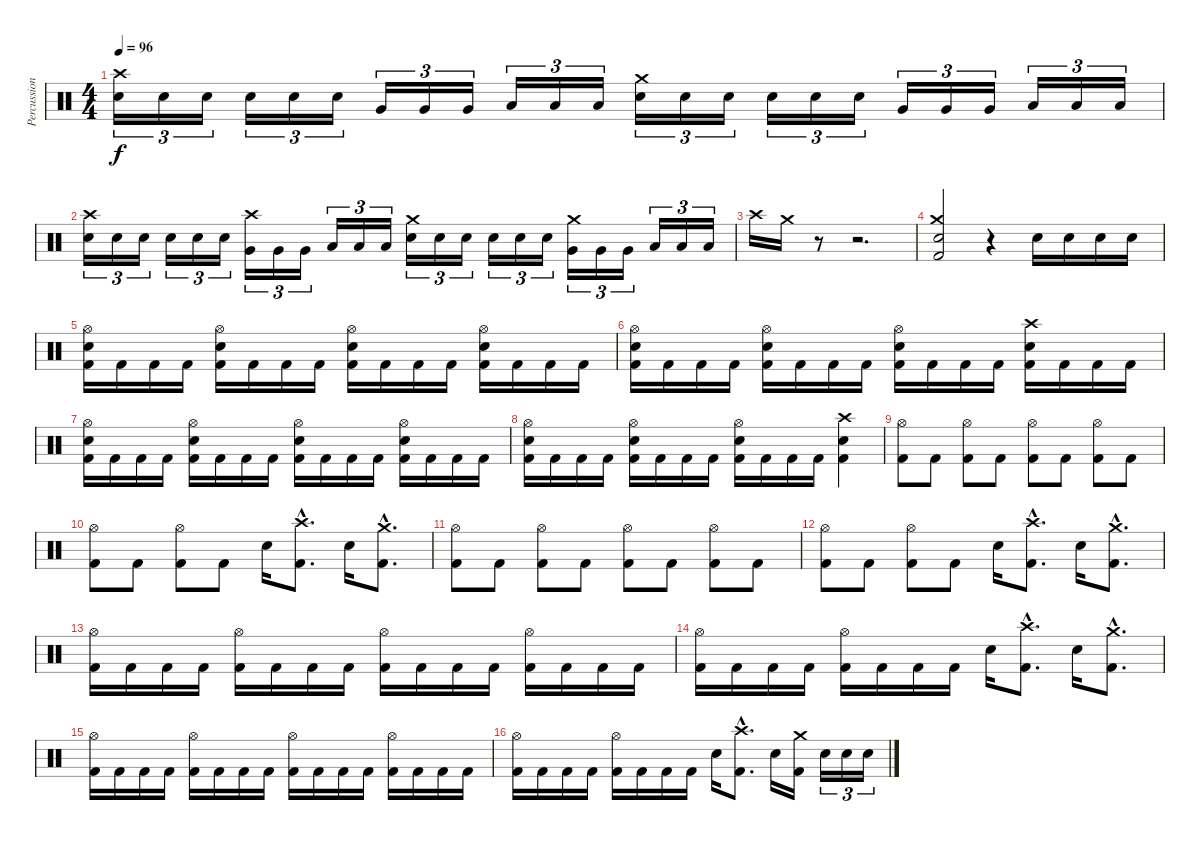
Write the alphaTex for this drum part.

\track ("Percussion" "Percussion") {instrument percussion}
\staff {score}
\articulation defaults
\ts (4 4)
\tempo 96
\clef neutral
\ks c
("Crash high (hit)" "Electric Snare (hit)").16{tu (3 2) dy f} "Electric Snare (hit)".16{tu (3 2)} "Electric Snare (hit)".16{tu (3 2)} "Electric Snare (hit)".16{tu (3 2)} "Electric Snare (hit)".16{tu (3 2)} "Electric Snare (hit)".16{tu (3 2)} "Very Low Tom (hit)".16{tu (3 2)} "Very Low Tom (hit)".16{tu (3 2)} "Very Low Tom (hit)".16{tu (3 2)} "Low Floor Tom (hit)".16{tu (3 2)} "Low Floor Tom (hit)".16{tu (3 2)} "Low Floor Tom (hit)".16{tu (3 2)} ("Crash medium (hit)" "Electric Snare (hit)").16{tu (3 2)} "Electric Snare (hit)".16{tu (3 2)} "Electric Snare (hit)".16{tu (3 2)} "Electric Snare (hit)".16{tu (3 2)} "Electric Snare (hit)".16{tu (3 2)} "Electric Snare (hit)".16{tu (3 2)} "Very Low Tom (hit)".16{tu (3 2)} "Very Low Tom (hit)".16{tu (3 2)} "Very Low Tom (hit)".16{tu (3 2)} "Low Floor Tom (hit)".16{tu (3 2)} "Low Floor Tom (hit)".16{tu (3 2)} "Low Floor Tom (hit)".16{tu (3 2)} |
("Crash high (hit)" "Electric Snare (hit)").16{tu (3 2)} "Electric Snare (hit)".16{tu (3 2)} "Electric Snare (hit)".16{tu (3 2)} "Electric Snare (hit)".16{tu (3 2)} "Electric Snare (hit)".16{tu (3 2)} "Electric Snare (hit)".16{tu (3 2)} ("Crash high (hit)" "Very Low Tom (hit)").16{tu (3 2)} "Very Low Tom (hit)".16{tu (3 2)} "Very Low Tom (hit)".16{tu (3 2)} "Low Floor Tom (hit)".16{tu (3 2)} "Low Floor Tom (hit)".16{tu (3 2)} "Low Floor Tom (hit)".16{tu (3 2)} ("Crash medium (hit)" "Electric Snare (hit)").16{tu (3 2)} "Electric Snare (hit)".16{tu (3 2)} "Electric Snare (hit)".16{tu (3 2)} "Electric Snare (hit)".16{tu (3 2)} "Electric Snare (hit)".16{tu (3 2)} "Electric Snare (hit)".16{tu (3 2)} ("Crash medium (hit)" "Very Low Tom (hit)").16{tu (3 2)} "Very Low Tom (hit)".16{tu (3 2)} "Very Low Tom (hit)".16{tu (3 2)} "Low Floor Tom (hit)".16{tu (3 2)} "Low Floor Tom (hit)".16{tu (3 2)} "Low Floor Tom (hit)".16{tu (3 2)} |
"Crash high (hit)".16 "Crash medium (hit)".16 r.8 r.2{d} |
("Crash medium (hit)" "Electric Snare (hit)" "Kick (hit) 2").2 r.4 "Electric Snare (hit)".16 "Electric Snare (hit)".16 "Electric Snare (hit)".16 "Electric Snare (hit)".16 |
("Hi-Hat (open)" "Electric Snare (hit)" "Kick (hit) 2").16 "Kick (hit) 2".16 "Kick (hit) 2".16 "Kick (hit) 2".16 ("Hi-Hat (open)" "Electric Snare (hit)" "Kick (hit) 2").16 "Kick (hit) 2".16 "Kick (hit) 2".16 "Kick (hit) 2".16 ("Hi-Hat (open)" "Electric Snare (hit)" "Kick (hit) 2").16 "Kick (hit) 2".16 "Kick (hit) 2".16 "Kick (hit) 2".16 ("Hi-Hat (open)" "Electric Snare (hit)" "Kick (hit) 2").16 "Kick (hit) 2".16 "Kick (hit) 2".16 "Kick (hit) 2".16 |
("Hi-Hat (open)" "Electric Snare (hit)" "Kick (hit) 2").16 "Kick (hit) 2".16 "Kick (hit) 2".16 "Kick (hit) 2".16 ("Hi-Hat (open)" "Electric Snare (hit)" "Kick (hit) 2").16 "Kick (hit) 2".16 "Kick (hit) 2".16 "Kick (hit) 2".16 ("Hi-Hat (open)" "Electric Snare (hit)" "Kick (hit) 2").16 "Kick (hit) 2".16 "Kick (hit) 2".16 "Kick (hit) 2".16 ("Crash high (hit)" "Electric Snare (hit)" "Kick (hit) 2").16 "Kick (hit) 2".16 "Kick (hit) 2".16 "Kick (hit) 2".16 |
("Hi-Hat (open)" "Electric Snare (hit)" "Kick (hit) 2").16 "Kick (hit) 2".16 "Kick (hit) 2".16 "Kick (hit) 2".16 ("Hi-Hat (open)" "Electric Snare (hit)" "Kick (hit) 2").16 "Kick (hit) 2".16 "Kick (hit) 2".16 "Kick (hit) 2".16 ("Hi-Hat (open)" "Electric Snare (hit)" "Kick (hit) 2").16 "Kick (hit) 2".16 "Kick (hit) 2".16 "Kick (hit) 2".16 ("Hi-Hat (open)" "Electric Snare (hit)" "Kick (hit) 2").16 "Kick (hit) 2".16 "Kick (hit) 2".16 "Kick (hit) 2".16 |
("Hi-Hat (open)" "Electric Snare (hit)" "Kick (hit) 2").16 "Kick (hit) 2".16 "Kick (hit) 2".16 "Kick (hit) 2".16 ("Hi-Hat (open)" "Electric Snare (hit)" "Kick (hit) 2").16 "Kick (hit) 2".16 "Kick (hit) 2".16 "Kick (hit) 2".16 ("Hi-Hat (open)" "Electric Snare (hit)" "Kick (hit) 2").16 "Kick (hit) 2".16 "Kick (hit) 2".16 "Kick (hit) 2".16 ("Crash high (hit)" "Electric Snare (hit)" "Kick (hit) 2").4 |
("Hi-Hat (open)" "Kick (hit) 2").8 "Kick (hit) 2".8 ("Hi-Hat (open)" "Kick (hit) 2").8 "Kick (hit) 2".8 ("Hi-Hat (open)" "Kick (hit) 2").8 "Kick (hit) 2".8 ("Hi-Hat (open)" "Kick (hit) 2").8 "Kick (hit) 2".8 |
("Hi-Hat (open)" "Kick (hit) 2").8 "Kick (hit) 2".8 ("Hi-Hat (open)" "Kick (hit) 2").8 "Kick (hit) 2".8 "Electric Snare (hit)".16 ("Crash high (hit)"{hac} "Kick (hit) 2"{hac}).8{d} "Electric Snare (hit)".16 ("Crash medium (hit)"{hac} "Kick (hit) 2"{hac}).8{d} |
("Hi-Hat (open)" "Kick (hit) 2").8 "Kick (hit) 2".8 ("Hi-Hat (open)" "Kick (hit) 2").8 "Kick (hit) 2".8 ("Hi-Hat (open)" "Kick (hit) 2").8 "Kick (hit) 2".8 ("Hi-Hat (open)" "Kick (hit) 2").8 "Kick (hit) 2".8 |
("Hi-Hat (open)" "Kick (hit) 2").8 "Kick (hit) 2".8 ("Hi-Hat (open)" "Kick (hit) 2").8 "Kick (hit) 2".8 "Electric Snare (hit)".16 ("Crash high (hit)"{hac} "Kick (hit) 2"{hac}).8{d} "Electric Snare (hit)".16 ("Crash medium (hit)"{hac} "Kick (hit) 2"{hac}).8{d} |
("Hi-Hat (open)" "Kick (hit) 2").16 "Kick (hit) 2".16 "Kick (hit) 2".16 "Kick (hit) 2".16 ("Hi-Hat (open)" "Kick (hit) 2").16 "Kick (hit) 2".16 "Kick (hit) 2".16 "Kick (hit) 2".16 ("Hi-Hat (open)" "Kick (hit) 2").16 "Kick (hit) 2".16 "Kick (hit) 2".16 "Kick (hit) 2".16 ("Hi-Hat (open)" "Kick (hit) 2").16 "Kick (hit) 2".16 "Kick (hit) 2".16 "Kick (hit) 2".16 |
("Hi-Hat (open)" "Kick (hit) 2").16 "Kick (hit) 2".16 "Kick (hit) 2".16 "Kick (hit) 2".16 ("Hi-Hat (open)" "Kick (hit) 2").16 "Kick (hit) 2".16 "Kick (hit) 2".16 "Kick (hit) 2".16 "Electric Snare (hit)".16 ("Crash high (hit)"{hac} "Kick (hit) 2"{hac}).8{d} "Electric Snare (hit)".16 ("Crash medium (hit)"{hac} "Kick (hit) 2"{hac}).8{d} |
("Hi-Hat (open)" "Kick (hit) 2").16 "Kick (hit) 2".16 "Kick (hit) 2".16 "Kick (hit) 2".16 ("Hi-Hat (open)" "Kick (hit) 2").16 "Kick (hit) 2".16 "Kick (hit) 2".16 "Kick (hit) 2".16 ("Hi-Hat (open)" "Kick (hit) 2").16 "Kick (hit) 2".16 "Kick (hit) 2".16 "Kick (hit) 2".16 ("Hi-Hat (open)" "Kick (hit) 2").16 "Kick (hit) 2".16 "Kick (hit) 2".16 "Kick (hit) 2".16 |
("Hi-Hat (open)" "Kick (hit) 2").16 "Kick (hit) 2".16 "Kick (hit) 2".16 "Kick (hit) 2".16 ("Hi-Hat (open)" "Kick (hit) 2").16 "Kick (hit) 2".16 "Kick (hit) 2".16 "Kick (hit) 2".16 "Electric Snare (hit)".16 ("Crash high (hit)"{hac} "Kick (hit) 2"{hac}).8{d} "Electric Snare (hit)".16 ("Crash medium (hit)" "Kick (hit) 2").16 "Electric Snare (hit)".16{tu (3 2)} "Electric Snare (hit)".16{tu (3 2)} "Electric Snare (hit)".16{tu (3 2)}
